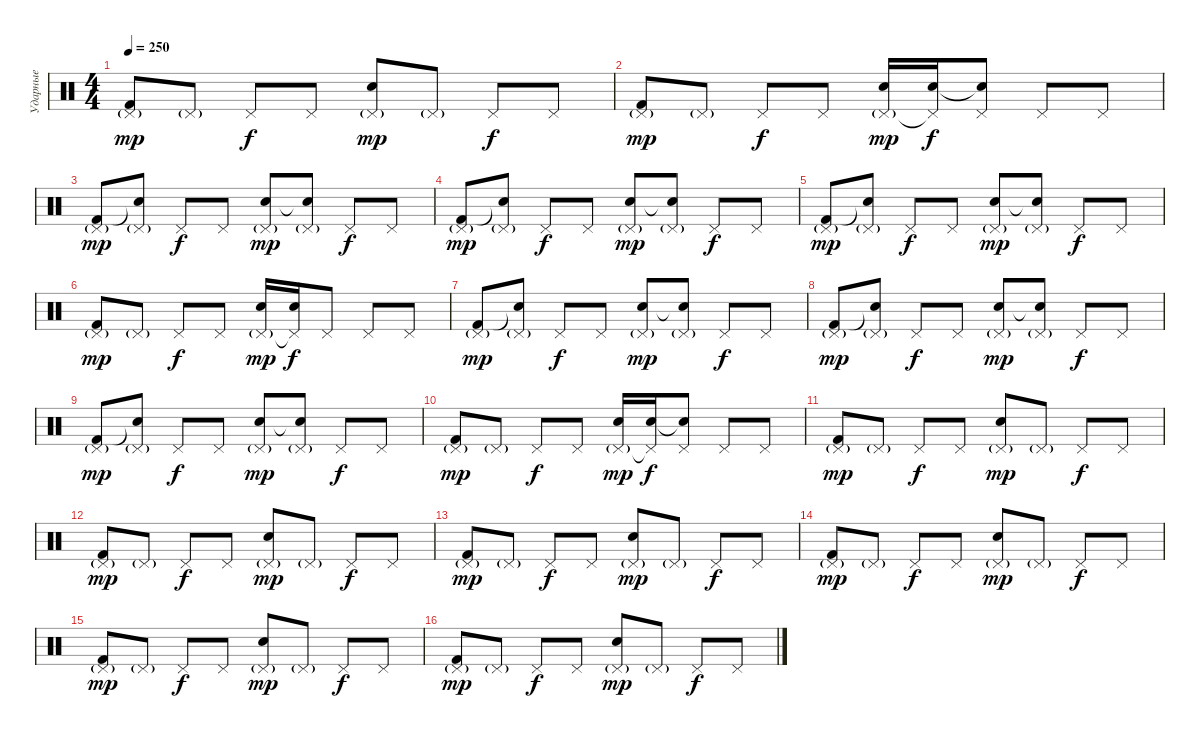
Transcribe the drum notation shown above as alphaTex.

\track ("Ударные" "Ударные") {instrument percussion}
\staff {score}
\articulation defaults
\ts (4 4)
\tempo 250
\clef neutral
\ks c
("Pedal Hi-Hat (hit)"{g} "Kick (hit) 2").8{dy mp} "Pedal Hi-Hat (hit)"{g}.8 "Pedal Hi-Hat (hit)".8{dy f} "Pedal Hi-Hat (hit)".8 ("Pedal Hi-Hat (hit)"{g} "Electric Snare (hit)").8{dy mp} "Pedal Hi-Hat (hit)"{g}.8 "Pedal Hi-Hat (hit)".8{dy f} "Pedal Hi-Hat (hit)".8 |
("Pedal Hi-Hat (hit)"{g} "Kick (hit) 2").8{dy mp} "Pedal Hi-Hat (hit)"{g}.8 "Pedal Hi-Hat (hit)".8{dy f} "Pedal Hi-Hat (hit)".8 ("Pedal Hi-Hat (hit)"{g} "Electric Snare (hit)").16{dy mp} ("Pedal Hi-Hat (hit)"{t} "Electric Snare (hit)").16{dy f} ("Pedal Hi-Hat (hit)" "Snare (hit)"{t}).8 "Pedal Hi-Hat (hit)".8 "Pedal Hi-Hat (hit)".8 |
("Pedal Hi-Hat (hit)"{g} "Kick (hit) 2").8{dy mp} ("Pedal Hi-Hat (hit)"{g} "Snare (hit)"{t}).8 "Pedal Hi-Hat (hit)".8{dy f} "Pedal Hi-Hat (hit)".8 ("Pedal Hi-Hat (hit)"{g} "Electric Snare (hit)").8{dy mp} ("Pedal Hi-Hat (hit)"{g} "Snare (hit)"{t}).8 "Pedal Hi-Hat (hit)".8{dy f} "Pedal Hi-Hat (hit)".8 |
("Pedal Hi-Hat (hit)"{g} "Kick (hit) 2").8{dy mp} ("Pedal Hi-Hat (hit)"{g} "Snare (hit)"{t}).8 "Pedal Hi-Hat (hit)".8{dy f} "Pedal Hi-Hat (hit)".8 ("Pedal Hi-Hat (hit)"{g} "Electric Snare (hit)").8{dy mp} ("Pedal Hi-Hat (hit)"{g} "Snare (hit)"{t}).8 "Pedal Hi-Hat (hit)".8{dy f} "Pedal Hi-Hat (hit)".8 |
("Pedal Hi-Hat (hit)"{g} "Kick (hit) 2").8{dy mp} ("Pedal Hi-Hat (hit)"{g} "Snare (hit)"{t}).8 "Pedal Hi-Hat (hit)".8{dy f} "Pedal Hi-Hat (hit)".8 ("Pedal Hi-Hat (hit)"{g} "Electric Snare (hit)").8{dy mp} ("Pedal Hi-Hat (hit)"{g} "Snare (hit)"{t}).8 "Pedal Hi-Hat (hit)".8{dy f} "Pedal Hi-Hat (hit)".8 |
("Pedal Hi-Hat (hit)"{g} "Kick (hit) 2").8{dy mp} "Pedal Hi-Hat (hit)"{g}.8 "Pedal Hi-Hat (hit)".8{dy f} "Pedal Hi-Hat (hit)".8 ("Pedal Hi-Hat (hit)"{g} "Electric Snare (hit)").16{dy mp} ("Pedal Hi-Hat (hit)"{t} "Electric Snare (hit)").16{dy f} "Pedal Hi-Hat (hit)".8 "Pedal Hi-Hat (hit)".8 "Pedal Hi-Hat (hit)".8 |
("Pedal Hi-Hat (hit)"{g} "Kick (hit) 2").8{dy mp} ("Pedal Hi-Hat (hit)"{g} "Snare (hit)"{t}).8 "Pedal Hi-Hat (hit)".8{dy f} "Pedal Hi-Hat (hit)".8 ("Pedal Hi-Hat (hit)"{g} "Electric Snare (hit)").8{dy mp} ("Pedal Hi-Hat (hit)"{g} "Snare (hit)"{t}).8 "Pedal Hi-Hat (hit)".8{dy f} "Pedal Hi-Hat (hit)".8 |
("Pedal Hi-Hat (hit)"{g} "Kick (hit) 2").8{dy mp} ("Pedal Hi-Hat (hit)"{g} "Snare (hit)"{t}).8 "Pedal Hi-Hat (hit)".8{dy f} "Pedal Hi-Hat (hit)".8 ("Pedal Hi-Hat (hit)"{g} "Electric Snare (hit)").8{dy mp} ("Pedal Hi-Hat (hit)"{g} "Snare (hit)"{t}).8 "Pedal Hi-Hat (hit)".8{dy f} "Pedal Hi-Hat (hit)".8 |
("Pedal Hi-Hat (hit)"{g} "Kick (hit) 2").8{dy mp} ("Pedal Hi-Hat (hit)"{g} "Snare (hit)"{t}).8 "Pedal Hi-Hat (hit)".8{dy f} "Pedal Hi-Hat (hit)".8 ("Pedal Hi-Hat (hit)"{g} "Electric Snare (hit)").8{dy mp} ("Pedal Hi-Hat (hit)"{g} "Snare (hit)"{t}).8 "Pedal Hi-Hat (hit)".8{dy f} "Pedal Hi-Hat (hit)".8 |
("Pedal Hi-Hat (hit)"{g} "Kick (hit) 2").8{dy mp} "Pedal Hi-Hat (hit)"{g}.8 "Pedal Hi-Hat (hit)".8{dy f} "Pedal Hi-Hat (hit)".8 ("Pedal Hi-Hat (hit)"{g} "Electric Snare (hit)").16{dy mp} ("Pedal Hi-Hat (hit)"{t} "Electric Snare (hit)").16{dy f} ("Pedal Hi-Hat (hit)" "Snare (hit)"{t}).8 "Pedal Hi-Hat (hit)".8 "Pedal Hi-Hat (hit)".8 |
("Pedal Hi-Hat (hit)"{g} "Kick (hit) 2").8{dy mp} "Pedal Hi-Hat (hit)"{g}.8 "Pedal Hi-Hat (hit)".8{dy f} "Pedal Hi-Hat (hit)".8 ("Pedal Hi-Hat (hit)"{g} "Electric Snare (hit)").8{dy mp} "Pedal Hi-Hat (hit)"{g}.8 "Pedal Hi-Hat (hit)".8{dy f} "Pedal Hi-Hat (hit)".8 |
("Pedal Hi-Hat (hit)"{g} "Kick (hit) 2").8{dy mp} "Pedal Hi-Hat (hit)"{g}.8 "Pedal Hi-Hat (hit)".8{dy f} "Pedal Hi-Hat (hit)".8 ("Pedal Hi-Hat (hit)"{g} "Electric Snare (hit)").8{dy mp} "Pedal Hi-Hat (hit)"{g}.8 "Pedal Hi-Hat (hit)".8{dy f} "Pedal Hi-Hat (hit)".8 |
("Pedal Hi-Hat (hit)"{g} "Kick (hit) 2").8{dy mp} "Pedal Hi-Hat (hit)"{g}.8 "Pedal Hi-Hat (hit)".8{dy f} "Pedal Hi-Hat (hit)".8 ("Pedal Hi-Hat (hit)"{g} "Electric Snare (hit)").8{dy mp} "Pedal Hi-Hat (hit)"{g}.8 "Pedal Hi-Hat (hit)".8{dy f} "Pedal Hi-Hat (hit)".8 |
("Pedal Hi-Hat (hit)"{g} "Kick (hit) 2").8{dy mp} "Pedal Hi-Hat (hit)"{g}.8 "Pedal Hi-Hat (hit)".8{dy f} "Pedal Hi-Hat (hit)".8 ("Pedal Hi-Hat (hit)"{g} "Electric Snare (hit)").8{dy mp} "Pedal Hi-Hat (hit)"{g}.8 "Pedal Hi-Hat (hit)".8{dy f} "Pedal Hi-Hat (hit)".8 |
("Pedal Hi-Hat (hit)"{g} "Kick (hit) 2").8{dy mp} "Pedal Hi-Hat (hit)"{g}.8 "Pedal Hi-Hat (hit)".8{dy f} "Pedal Hi-Hat (hit)".8 ("Pedal Hi-Hat (hit)"{g} "Electric Snare (hit)").8{dy mp} "Pedal Hi-Hat (hit)"{g}.8 "Pedal Hi-Hat (hit)".8{dy f} "Pedal Hi-Hat (hit)".8 |
("Pedal Hi-Hat (hit)"{g} "Kick (hit) 2").8{dy mp} "Pedal Hi-Hat (hit)"{g}.8 "Pedal Hi-Hat (hit)".8{dy f} "Pedal Hi-Hat (hit)".8 ("Pedal Hi-Hat (hit)"{g} "Electric Snare (hit)").8{dy mp} "Pedal Hi-Hat (hit)"{g}.8 "Pedal Hi-Hat (hit)".8{dy f} "Pedal Hi-Hat (hit)".8
